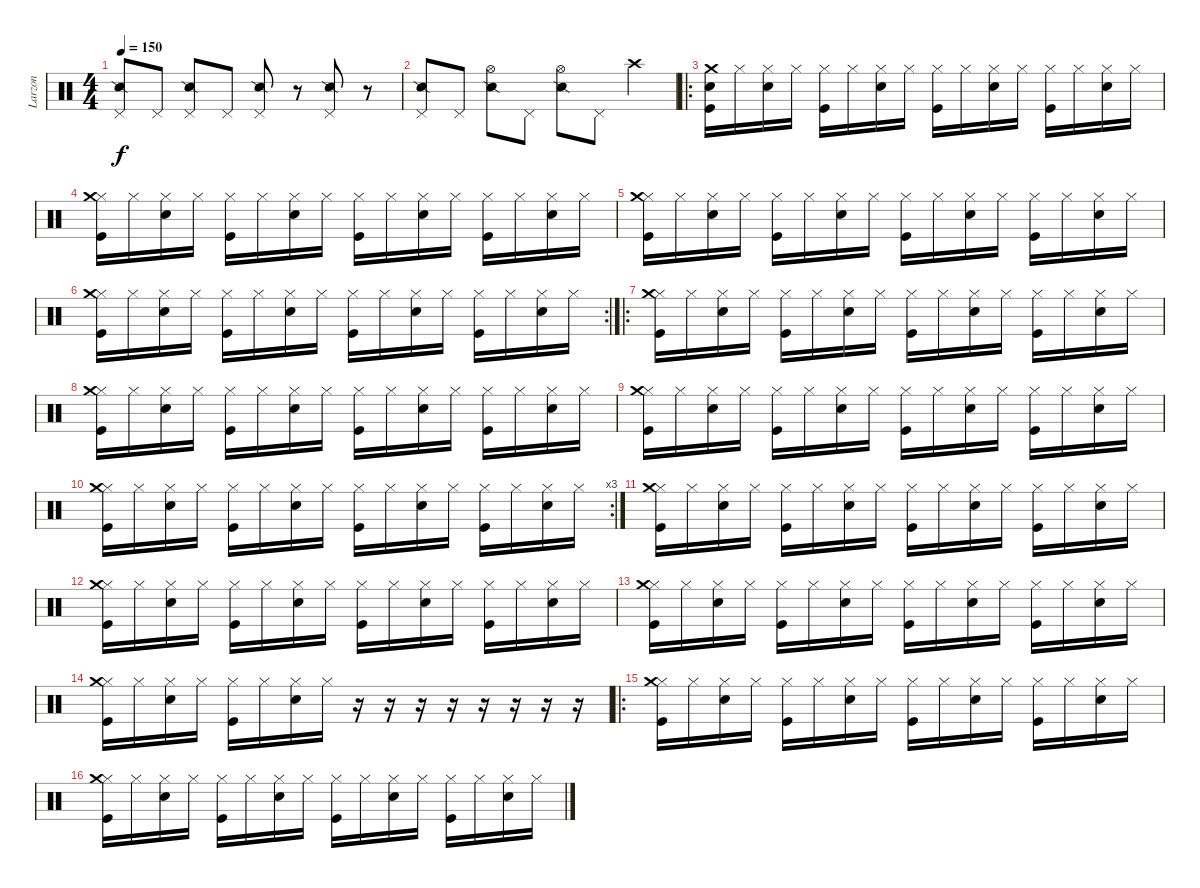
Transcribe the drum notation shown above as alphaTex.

\track ("Larzon" "Larzon") {instrument percussion}
\staff {score}
\articulation defaults
\ts (4 4)
\tempo 150
\clef neutral
\ks c
("Pedal Hi-Hat (hit)" "Snare (side stick) 2").8{dy f} "Pedal Hi-Hat (hit)".8 ("Pedal Hi-Hat (hit)" "Snare (side stick) 2").8 "Pedal Hi-Hat (hit)".8 ("Pedal Hi-Hat (hit)" "Snare (side stick) 2").8 r.8 ("Pedal Hi-Hat (hit)" "Snare (side stick) 2").8 r.8 |
("Pedal Hi-Hat (hit)" "Snare (side stick) 2").8 "Pedal Hi-Hat (hit)".8 ("Hi-Hat (open)" "Snare (side stick) 2").8 "Pedal Hi-Hat (hit)".8 ("Hi-Hat (open)" "Snare (side stick) 2").8 "Pedal Hi-Hat (hit)".8 "Crash high (hit)".4 |
\ro
("Snare (hit) 2" "Crash medium (hit)" "Kick (hit)").16 "Hi-Hat (closed)".16 ("Hi-Hat (closed)" "Snare (hit) 2").16 "Hi-Hat (closed)".16 ("Hi-Hat (closed)" "Kick (hit)").16 "Hi-Hat (closed)".16 ("Hi-Hat (closed)" "Snare (hit) 2").16 "Hi-Hat (closed)".16 ("Hi-Hat (closed)" "Kick (hit)").16 "Hi-Hat (closed)".16 ("Hi-Hat (closed)" "Snare (hit) 2").16 "Hi-Hat (closed)".16 ("Hi-Hat (closed)" "Kick (hit)").16 "Hi-Hat (closed)".16 ("Hi-Hat (closed)" "Snare (hit) 2").16 "Hi-Hat (closed)".16 |
("Hi-Hat (closed)" "Crash medium (hit)" "Kick (hit)").16 "Hi-Hat (closed)".16 ("Hi-Hat (closed)" "Snare (hit) 2").16 "Hi-Hat (closed)".16 ("Hi-Hat (closed)" "Kick (hit)").16 "Hi-Hat (closed)".16 ("Hi-Hat (closed)" "Snare (hit) 2").16 "Hi-Hat (closed)".16 ("Hi-Hat (closed)" "Kick (hit)").16 "Hi-Hat (closed)".16 ("Hi-Hat (closed)" "Snare (hit) 2").16 "Hi-Hat (closed)".16 ("Hi-Hat (closed)" "Kick (hit)").16 "Hi-Hat (closed)".16 ("Hi-Hat (closed)" "Snare (hit) 2").16 "Hi-Hat (closed)".16 |
("Hi-Hat (closed)" "Crash medium (hit)" "Kick (hit)").16 "Hi-Hat (closed)".16 ("Hi-Hat (closed)" "Snare (hit) 2").16 "Hi-Hat (closed)".16 ("Hi-Hat (closed)" "Kick (hit)").16 "Hi-Hat (closed)".16 ("Hi-Hat (closed)" "Snare (hit) 2").16 "Hi-Hat (closed)".16 ("Hi-Hat (closed)" "Kick (hit)").16 "Hi-Hat (closed)".16 ("Hi-Hat (closed)" "Snare (hit) 2").16 "Hi-Hat (closed)".16 ("Hi-Hat (closed)" "Kick (hit)").16 "Hi-Hat (closed)".16 ("Hi-Hat (closed)" "Snare (hit) 2").16 "Hi-Hat (closed)".16 |
\rc 2
("Hi-Hat (closed)" "Crash medium (hit)" "Kick (hit)").16 "Hi-Hat (closed)".16 ("Hi-Hat (closed)" "Snare (hit) 2").16 "Hi-Hat (closed)".16 ("Hi-Hat (closed)" "Kick (hit)").16 "Hi-Hat (closed)".16 ("Hi-Hat (closed)" "Snare (hit) 2").16 "Hi-Hat (closed)".16 ("Hi-Hat (closed)" "Kick (hit)").16 "Hi-Hat (closed)".16 ("Hi-Hat (closed)" "Snare (hit) 2").16 "Hi-Hat (closed)".16 ("Hi-Hat (closed)" "Kick (hit)").16 "Hi-Hat (closed)".16 ("Hi-Hat (closed)" "Snare (hit) 2").16 "Hi-Hat (closed)".16 |
\ro
("Hi-Hat (closed)" "Crash medium (hit)" "Kick (hit)").16 "Hi-Hat (closed)".16 ("Hi-Hat (closed)" "Snare (hit) 2").16 "Hi-Hat (closed)".16 ("Hi-Hat (closed)" "Kick (hit)").16 "Hi-Hat (closed)".16 ("Hi-Hat (closed)" "Snare (hit) 2").16 "Hi-Hat (closed)".16 ("Hi-Hat (closed)" "Kick (hit)").16 "Hi-Hat (closed)".16 ("Hi-Hat (closed)" "Snare (hit) 2").16 "Hi-Hat (closed)".16 ("Hi-Hat (closed)" "Kick (hit)").16 "Hi-Hat (closed)".16 ("Hi-Hat (closed)" "Snare (hit) 2").16 "Hi-Hat (closed)".16 |
("Hi-Hat (closed)" "Crash medium (hit)" "Kick (hit)").16 "Hi-Hat (closed)".16 ("Hi-Hat (closed)" "Snare (hit) 2").16 "Hi-Hat (closed)".16 ("Hi-Hat (closed)" "Kick (hit)").16 "Hi-Hat (closed)".16 ("Hi-Hat (closed)" "Snare (hit) 2").16 "Hi-Hat (closed)".16 ("Hi-Hat (closed)" "Kick (hit)").16 "Hi-Hat (closed)".16 ("Hi-Hat (closed)" "Snare (hit) 2").16 "Hi-Hat (closed)".16 ("Hi-Hat (closed)" "Kick (hit)").16 "Hi-Hat (closed)".16 ("Hi-Hat (closed)" "Snare (hit) 2").16 "Hi-Hat (closed)".16 |
("Hi-Hat (closed)" "Crash medium (hit)" "Kick (hit)").16 "Hi-Hat (closed)".16 ("Hi-Hat (closed)" "Snare (hit) 2").16 "Hi-Hat (closed)".16 ("Hi-Hat (closed)" "Kick (hit)").16 "Hi-Hat (closed)".16 ("Hi-Hat (closed)" "Snare (hit) 2").16 "Hi-Hat (closed)".16 ("Hi-Hat (closed)" "Kick (hit)").16 "Hi-Hat (closed)".16 ("Hi-Hat (closed)" "Snare (hit) 2").16 "Hi-Hat (closed)".16 ("Hi-Hat (closed)" "Kick (hit)").16 "Hi-Hat (closed)".16 ("Hi-Hat (closed)" "Snare (hit) 2").16 "Hi-Hat (closed)".16 |
\rc 3
("Hi-Hat (closed)" "Crash medium (hit)" "Kick (hit)").16 "Hi-Hat (closed)".16 ("Hi-Hat (closed)" "Snare (hit) 2").16 "Hi-Hat (closed)".16 ("Hi-Hat (closed)" "Kick (hit)").16 "Hi-Hat (closed)".16 ("Hi-Hat (closed)" "Snare (hit) 2").16 "Hi-Hat (closed)".16 ("Hi-Hat (closed)" "Kick (hit)").16 "Hi-Hat (closed)".16 ("Hi-Hat (closed)" "Snare (hit) 2").16 "Hi-Hat (closed)".16 ("Hi-Hat (closed)" "Kick (hit)").16 "Hi-Hat (closed)".16 ("Hi-Hat (closed)" "Snare (hit) 2").16 "Hi-Hat (closed)".16 |
("Hi-Hat (closed)" "Crash medium (hit)" "Kick (hit)").16 "Hi-Hat (closed)".16 ("Hi-Hat (closed)" "Snare (hit) 2").16 "Hi-Hat (closed)".16 ("Hi-Hat (closed)" "Kick (hit)").16 "Hi-Hat (closed)".16 ("Hi-Hat (closed)" "Snare (hit) 2").16 "Hi-Hat (closed)".16 ("Hi-Hat (closed)" "Kick (hit)").16 "Hi-Hat (closed)".16 ("Hi-Hat (closed)" "Snare (hit) 2").16 "Hi-Hat (closed)".16 ("Hi-Hat (closed)" "Kick (hit)").16 "Hi-Hat (closed)".16 ("Hi-Hat (closed)" "Snare (hit) 2").16 "Hi-Hat (closed)".16 |
("Hi-Hat (closed)" "Crash medium (hit)" "Kick (hit)").16 "Hi-Hat (closed)".16 ("Hi-Hat (closed)" "Snare (hit) 2").16 "Hi-Hat (closed)".16 ("Hi-Hat (closed)" "Kick (hit)").16 "Hi-Hat (closed)".16 ("Hi-Hat (closed)" "Snare (hit) 2").16 "Hi-Hat (closed)".16 ("Hi-Hat (closed)" "Kick (hit)").16 "Hi-Hat (closed)".16 ("Hi-Hat (closed)" "Snare (hit) 2").16 "Hi-Hat (closed)".16 ("Hi-Hat (closed)" "Kick (hit)").16 "Hi-Hat (closed)".16 ("Hi-Hat (closed)" "Snare (hit) 2").16 "Hi-Hat (closed)".16 |
("Hi-Hat (closed)" "Crash medium (hit)" "Kick (hit)").16 "Hi-Hat (closed)".16 ("Hi-Hat (closed)" "Snare (hit) 2").16 "Hi-Hat (closed)".16 ("Hi-Hat (closed)" "Kick (hit)").16 "Hi-Hat (closed)".16 ("Hi-Hat (closed)" "Snare (hit) 2").16 "Hi-Hat (closed)".16 ("Hi-Hat (closed)" "Kick (hit)").16 "Hi-Hat (closed)".16 ("Hi-Hat (closed)" "Snare (hit) 2").16 "Hi-Hat (closed)".16 ("Hi-Hat (closed)" "Kick (hit)").16 "Hi-Hat (closed)".16 ("Hi-Hat (closed)" "Snare (hit) 2").16 "Hi-Hat (closed)".16 |
("Hi-Hat (closed)" "Crash medium (hit)" "Kick (hit)").16 "Hi-Hat (closed)".16 ("Hi-Hat (closed)" "Snare (hit) 2").16 "Hi-Hat (closed)".16 ("Hi-Hat (closed)" "Kick (hit)").16 "Hi-Hat (closed)".16 ("Hi-Hat (closed)" "Snare (hit) 2").16 "Hi-Hat (closed)".16 r.16 r.16 r.16 r.16 r.16 r.16 r.16 r.16 |
\ro
("Hi-Hat (closed)" "Crash medium (hit)" "Kick (hit)").16 "Hi-Hat (closed)".16 ("Hi-Hat (closed)" "Snare (hit) 2").16 "Hi-Hat (closed)".16 ("Hi-Hat (closed)" "Kick (hit)").16 "Hi-Hat (closed)".16 ("Hi-Hat (closed)" "Snare (hit) 2").16 "Hi-Hat (closed)".16 ("Hi-Hat (closed)" "Kick (hit)").16 "Hi-Hat (closed)".16 ("Hi-Hat (closed)" "Snare (hit) 2").16 "Hi-Hat (closed)".16 ("Hi-Hat (closed)" "Kick (hit)").16 "Hi-Hat (closed)".16 ("Hi-Hat (closed)" "Snare (hit) 2").16 "Hi-Hat (closed)".16 |
("Hi-Hat (closed)" "Crash medium (hit)" "Kick (hit)").16 "Hi-Hat (closed)".16 ("Hi-Hat (closed)" "Snare (hit) 2").16 "Hi-Hat (closed)".16 ("Hi-Hat (closed)" "Kick (hit)").16 "Hi-Hat (closed)".16 ("Hi-Hat (closed)" "Snare (hit) 2").16 "Hi-Hat (closed)".16 ("Hi-Hat (closed)" "Kick (hit)").16 "Hi-Hat (closed)".16 ("Hi-Hat (closed)" "Snare (hit) 2").16 "Hi-Hat (closed)".16 ("Hi-Hat (closed)" "Kick (hit)").16 "Hi-Hat (closed)".16 ("Hi-Hat (closed)" "Snare (hit) 2").16 "Hi-Hat (closed)".16
